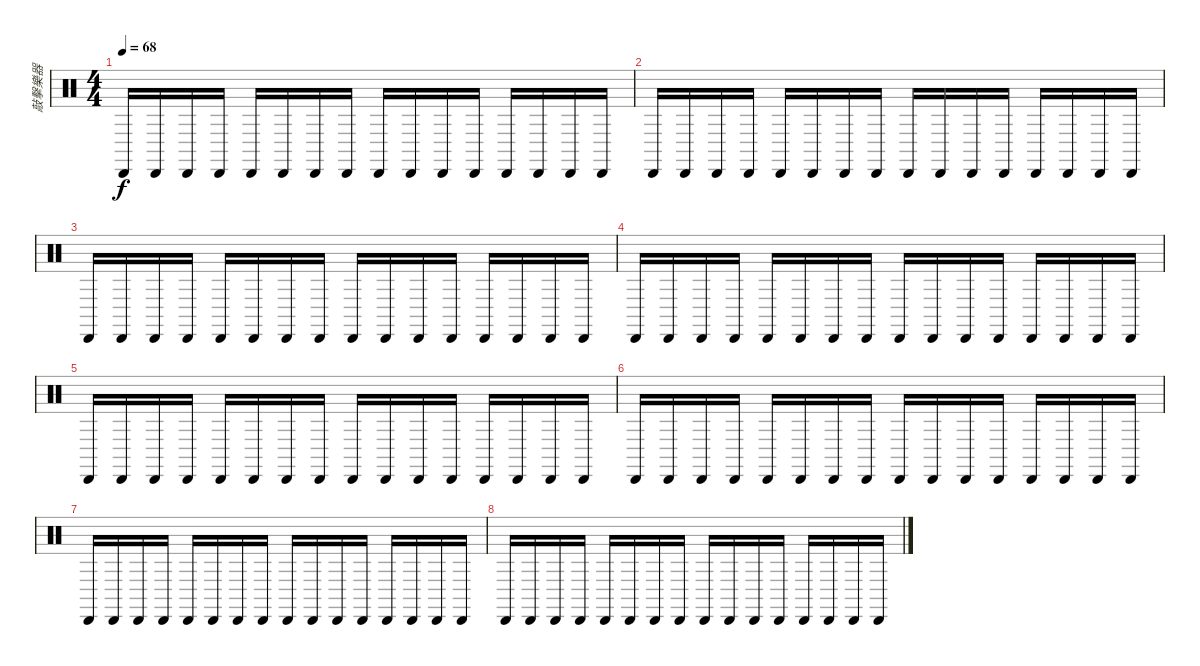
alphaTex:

\track ("敲擊樂器" "敲擊樂器") {instrument percussion}
\staff {score}
\articulation defaults
\ts (4 4)
\tempo 68
\clef neutral
\ks c "Cabasa (hit)".16{dy f} "Cabasa (hit)".16 "Cabasa (hit)".16 "Cabasa (hit)".16 "Cabasa (hit)".16 "Cabasa (hit)".16 "Cabasa (hit)".16 "Cabasa (hit)".16 "Cabasa (hit)".16 "Cabasa (hit)".16 "Cabasa (hit)".16 "Cabasa (hit)".16 "Cabasa (hit)".16 "Cabasa (hit)".16 "Cabasa (hit)".16 "Cabasa (hit)".16
|
"Cabasa (hit)".16 "Cabasa (hit)".16 "Cabasa (hit)".16 "Cabasa (hit)".16 "Cabasa (hit)".16 "Cabasa (hit)".16 "Cabasa (hit)".16 "Cabasa (hit)".16 "Cabasa (hit)".16 "Cabasa (hit)".16 "Cabasa (hit)".16 "Cabasa (hit)".16 "Cabasa (hit)".16 "Cabasa (hit)".16 "Cabasa (hit)".16 "Cabasa (hit)".16 |
"Cabasa (hit)".16 "Cabasa (hit)".16 "Cabasa (hit)".16 "Cabasa (hit)".16 "Cabasa (hit)".16 "Cabasa (hit)".16 "Cabasa (hit)".16 "Cabasa (hit)".16 "Cabasa (hit)".16 "Cabasa (hit)".16 "Cabasa (hit)".16 "Cabasa (hit)".16 "Cabasa (hit)".16 "Cabasa (hit)".16 "Cabasa (hit)".16 "Cabasa (hit)".16 |
"Cabasa (hit)".16 "Cabasa (hit)".16 "Cabasa (hit)".16 "Cabasa (hit)".16 "Cabasa (hit)".16 "Cabasa (hit)".16 "Cabasa (hit)".16 "Cabasa (hit)".16 "Cabasa (hit)".16 "Cabasa (hit)".16 "Cabasa (hit)".16 "Cabasa (hit)".16 "Cabasa (hit)".16 "Cabasa (hit)".16 "Cabasa (hit)".16 "Cabasa (hit)".16 |
"Cabasa (hit)".16 "Cabasa (hit)".16 "Cabasa (hit)".16 "Cabasa (hit)".16 "Cabasa (hit)".16 "Cabasa (hit)".16 "Cabasa (hit)".16 "Cabasa (hit)".16 "Cabasa (hit)".16 "Cabasa (hit)".16 "Cabasa (hit)".16 "Cabasa (hit)".16 "Cabasa (hit)".16 "Cabasa (hit)".16 "Cabasa (hit)".16 "Cabasa (hit)".16 |
"Cabasa (hit)".16 "Cabasa (hit)".16 "Cabasa (hit)".16 "Cabasa (hit)".16 "Cabasa (hit)".16 "Cabasa (hit)".16 "Cabasa (hit)".16 "Cabasa (hit)".16 "Cabasa (hit)".16 "Cabasa (hit)".16 "Cabasa (hit)".16 "Cabasa (hit)".16 "Cabasa (hit)".16 "Cabasa (hit)".16 "Cabasa (hit)".16 "Cabasa (hit)".16 |
"Cabasa (hit)".16 "Cabasa (hit)".16 "Cabasa (hit)".16 "Cabasa (hit)".16 "Cabasa (hit)".16 "Cabasa (hit)".16 "Cabasa (hit)".16 "Cabasa (hit)".16 "Cabasa (hit)".16 "Cabasa (hit)".16 "Cabasa (hit)".16 "Cabasa (hit)".16 "Cabasa (hit)".16 "Cabasa (hit)".16 "Cabasa (hit)".16 "Cabasa (hit)".16 |
"Cabasa (hit)".16 "Cabasa (hit)".16 "Cabasa (hit)".16 "Cabasa (hit)".16 "Cabasa (hit)".16 "Cabasa (hit)".16 "Cabasa (hit)".16 "Cabasa (hit)".16 "Cabasa (hit)".16 "Cabasa (hit)".16 "Cabasa (hit)".16 "Cabasa (hit)".16 "Cabasa (hit)".16 "Cabasa (hit)".16 "Cabasa (hit)".16 "Cabasa (hit)".16
